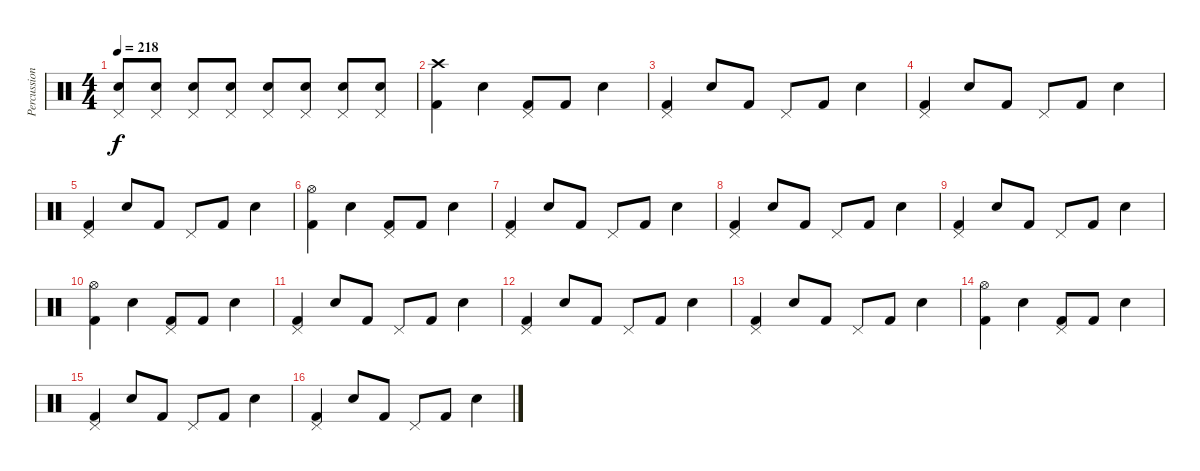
\track ("Percussion" "Percussion") {instrument percussion}
\staff {score}
\articulation defaults
\ts (4 4)
\tempo 218
\clef neutral
\ks c
("Snare (hit) 2" "Pedal Hi-Hat (hit)").8{dy f} ("Snare (hit) 2" "Pedal Hi-Hat (hit)").8 ("Snare (hit) 2" "Pedal Hi-Hat (hit)").8 ("Snare (hit) 2" "Pedal Hi-Hat (hit)").8 ("Snare (hit) 2" "Pedal Hi-Hat (hit)").8 ("Snare (hit) 2" "Pedal Hi-Hat (hit)").8 ("Snare (hit) 2" "Pedal Hi-Hat (hit)").8 ("Snare (hit) 2" "Pedal Hi-Hat (hit)").8 |
("Kick (hit) 2" "Crash high (hit)").4 "Snare (hit) 2".4 ("Kick (hit) 2" "Pedal Hi-Hat (hit)").8 "Kick (hit) 2".8 "Snare (hit) 2".4 |
("Kick (hit) 2" "Pedal Hi-Hat (hit)").4 "Snare (hit) 2".8 "Kick (hit) 2".8 "Pedal Hi-Hat (hit)".8 "Kick (hit) 2".8 "Snare (hit) 2".4 |
("Kick (hit) 2" "Pedal Hi-Hat (hit)").4 "Snare (hit) 2".8 "Kick (hit) 2".8 "Pedal Hi-Hat (hit)".8 "Kick (hit) 2".8 "Snare (hit) 2".4 |
("Kick (hit) 2" "Pedal Hi-Hat (hit)").4 "Snare (hit) 2".8 "Kick (hit) 2".8 "Pedal Hi-Hat (hit)".8 "Kick (hit) 2".8 "Snare (hit) 2".4 |
("Kick (hit) 2" "Hi-Hat (open)").4 "Snare (hit) 2".4 ("Kick (hit) 2" "Pedal Hi-Hat (hit)").8 "Kick (hit) 2".8 "Snare (hit) 2".4 |
("Kick (hit) 2" "Pedal Hi-Hat (hit)").4 "Snare (hit) 2".8 "Kick (hit) 2".8 "Pedal Hi-Hat (hit)".8 "Kick (hit) 2".8 "Snare (hit) 2".4 |
("Kick (hit) 2" "Pedal Hi-Hat (hit)").4 "Snare (hit) 2".8 "Kick (hit) 2".8 "Pedal Hi-Hat (hit)".8 "Kick (hit) 2".8 "Snare (hit) 2".4 |
("Kick (hit) 2" "Pedal Hi-Hat (hit)").4 "Snare (hit) 2".8 "Kick (hit) 2".8 "Pedal Hi-Hat (hit)".8 "Kick (hit) 2".8 "Snare (hit) 2".4 |
("Kick (hit) 2" "Hi-Hat (open)").4 "Snare (hit) 2".4 ("Kick (hit) 2" "Pedal Hi-Hat (hit)").8 "Kick (hit) 2".8 "Snare (hit) 2".4 |
("Kick (hit) 2" "Pedal Hi-Hat (hit)").4 "Snare (hit) 2".8 "Kick (hit) 2".8 "Pedal Hi-Hat (hit)".8 "Kick (hit) 2".8 "Snare (hit) 2".4 |
("Kick (hit) 2" "Pedal Hi-Hat (hit)").4 "Snare (hit) 2".8 "Kick (hit) 2".8 "Pedal Hi-Hat (hit)".8 "Kick (hit) 2".8 "Snare (hit) 2".4 |
("Kick (hit) 2" "Pedal Hi-Hat (hit)").4 "Snare (hit) 2".8 "Kick (hit) 2".8 "Pedal Hi-Hat (hit)".8 "Kick (hit) 2".8 "Snare (hit) 2".4 |
("Kick (hit) 2" "Hi-Hat (open)").4 "Snare (hit) 2".4 ("Kick (hit) 2" "Pedal Hi-Hat (hit)").8 "Kick (hit) 2".8 "Snare (hit) 2".4 |
("Kick (hit) 2" "Pedal Hi-Hat (hit)").4 "Snare (hit) 2".8 "Kick (hit) 2".8 "Pedal Hi-Hat (hit)".8 "Kick (hit) 2".8 "Snare (hit) 2".4 |
("Kick (hit) 2" "Pedal Hi-Hat (hit)").4 "Snare (hit) 2".8 "Kick (hit) 2".8 "Pedal Hi-Hat (hit)".8 "Kick (hit) 2".8 "Snare (hit) 2".4
